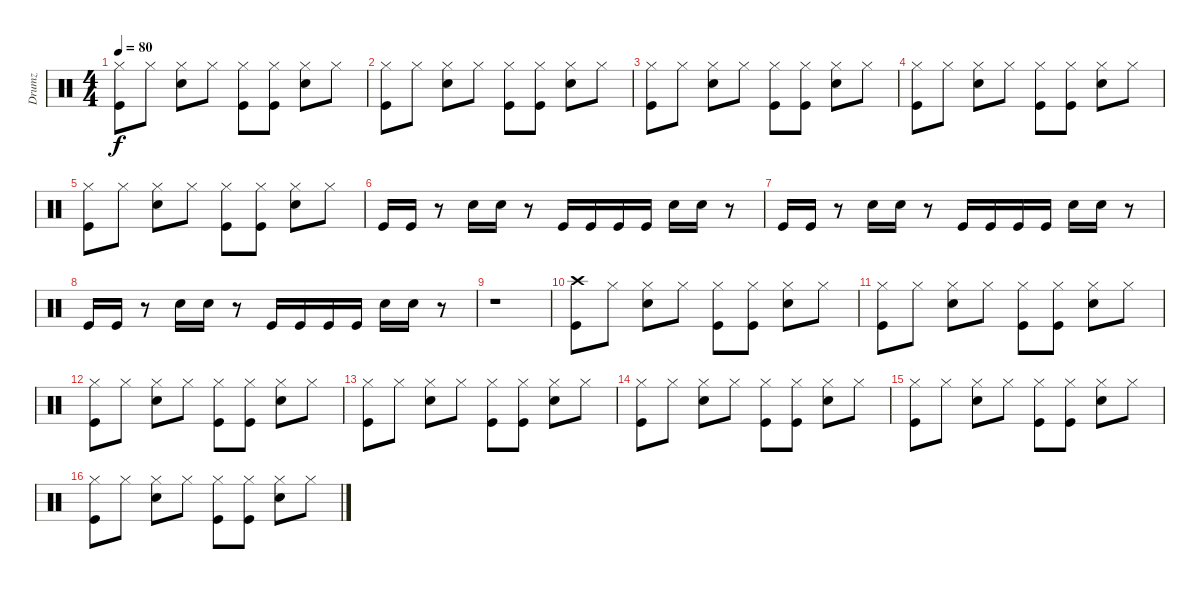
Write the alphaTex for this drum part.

\track ("Drumz" "Drumz") {instrument percussion}
\staff {score}
\articulation defaults
\ts (4 4)
\tempo 80
\clef neutral
\ks c
("Hi-Hat (closed)" "Kick (hit)").8{dy f} "Hi-Hat (closed)".8 ("Hi-Hat (closed)" "Electric Snare (hit)").8 "Hi-Hat (closed)".8 ("Hi-Hat (closed)" "Kick (hit)").8 ("Hi-Hat (closed)" "Kick (hit)").8 ("Hi-Hat (closed)" "Electric Snare (hit)").8 "Hi-Hat (closed)".8 |
("Hi-Hat (closed)" "Kick (hit)").8 "Hi-Hat (closed)".8 ("Hi-Hat (closed)" "Electric Snare (hit)").8 "Hi-Hat (closed)".8 ("Hi-Hat (closed)" "Kick (hit)").8 ("Hi-Hat (closed)" "Kick (hit)").8 ("Hi-Hat (closed)" "Electric Snare (hit)").8 "Hi-Hat (closed)".8 |
("Hi-Hat (closed)" "Kick (hit)").8 "Hi-Hat (closed)".8 ("Hi-Hat (closed)" "Electric Snare (hit)").8 "Hi-Hat (closed)".8 ("Hi-Hat (closed)" "Kick (hit)").8 ("Hi-Hat (closed)" "Kick (hit)").8 ("Hi-Hat (closed)" "Electric Snare (hit)").8 "Hi-Hat (closed)".8 |
("Hi-Hat (closed)" "Kick (hit)").8 "Hi-Hat (closed)".8 ("Hi-Hat (closed)" "Electric Snare (hit)").8 "Hi-Hat (closed)".8 ("Hi-Hat (closed)" "Kick (hit)").8 ("Hi-Hat (closed)" "Kick (hit)").8 ("Hi-Hat (closed)" "Electric Snare (hit)").8 "Hi-Hat (closed)".8 |
("Hi-Hat (closed)" "Kick (hit)").8 "Hi-Hat (closed)".8 ("Hi-Hat (closed)" "Electric Snare (hit)").8 "Hi-Hat (closed)".8 ("Hi-Hat (closed)" "Kick (hit)").8 ("Hi-Hat (closed)" "Kick (hit)").8 ("Hi-Hat (closed)" "Electric Snare (hit)").8 "Hi-Hat (closed)".8 |
"Kick (hit)".16 "Kick (hit)".16 r.8 "Hand Clap (hit)".16 "Hand Clap (hit)".16 r.8 "Kick (hit)".16 "Kick (hit)".16 "Kick (hit)".16 "Kick (hit)".16 "Hand Clap (hit)".16 "Hand Clap (hit)".16 r.8 |
"Kick (hit)".16 "Kick (hit)".16 r.8 "Hand Clap (hit)".16 "Hand Clap (hit)".16 r.8 "Kick (hit)".16 "Kick (hit)".16 "Kick (hit)".16 "Kick (hit)".16 "Hand Clap (hit)".16 "Hand Clap (hit)".16 r.8 |
"Kick (hit)".16 "Kick (hit)".16 r.8 "Hand Clap (hit)".16 "Hand Clap (hit)".16 r.8 "Kick (hit)".16 "Kick (hit)".16 "Kick (hit)".16 "Kick (hit)".16 "Hand Clap (hit)".16 "Hand Clap (hit)".16 r.8 |
r.1 |
("Crash high (hit)" "Kick (hit)").8 "Hi-Hat (closed)".8 ("Hi-Hat (closed)" "Electric Snare (hit)").8 "Hi-Hat (closed)".8 ("Hi-Hat (closed)" "Kick (hit)").8 ("Hi-Hat (closed)" "Kick (hit)").8 ("Hi-Hat (closed)" "Electric Snare (hit)").8 "Hi-Hat (closed)".8 |
("Hi-Hat (closed)" "Kick (hit)").8 "Hi-Hat (closed)".8 ("Hi-Hat (closed)" "Electric Snare (hit)").8 "Hi-Hat (closed)".8 ("Hi-Hat (closed)" "Kick (hit)").8 ("Hi-Hat (closed)" "Kick (hit)").8 ("Hi-Hat (closed)" "Electric Snare (hit)").8 "Hi-Hat (closed)".8 |
("Hi-Hat (closed)" "Kick (hit)").8 "Hi-Hat (closed)".8 ("Hi-Hat (closed)" "Electric Snare (hit)").8 "Hi-Hat (closed)".8 ("Hi-Hat (closed)" "Kick (hit)").8 ("Hi-Hat (closed)" "Kick (hit)").8 ("Hi-Hat (closed)" "Electric Snare (hit)").8 "Hi-Hat (closed)".8 |
("Hi-Hat (closed)" "Kick (hit)").8 "Hi-Hat (closed)".8 ("Hi-Hat (closed)" "Electric Snare (hit)").8 "Hi-Hat (closed)".8 ("Hi-Hat (closed)" "Kick (hit)").8 ("Hi-Hat (closed)" "Kick (hit)").8 ("Hi-Hat (closed)" "Electric Snare (hit)").8 "Hi-Hat (closed)".8 |
("Hi-Hat (closed)" "Kick (hit)").8 "Hi-Hat (closed)".8 ("Hi-Hat (closed)" "Electric Snare (hit)").8 "Hi-Hat (closed)".8 ("Hi-Hat (closed)" "Kick (hit)").8 ("Hi-Hat (closed)" "Kick (hit)").8 ("Hi-Hat (closed)" "Electric Snare (hit)").8 "Hi-Hat (closed)".8 |
("Hi-Hat (closed)" "Kick (hit)").8 "Hi-Hat (closed)".8 ("Hi-Hat (closed)" "Electric Snare (hit)").8 "Hi-Hat (closed)".8 ("Hi-Hat (closed)" "Kick (hit)").8 ("Hi-Hat (closed)" "Kick (hit)").8 ("Hi-Hat (closed)" "Electric Snare (hit)").8 "Hi-Hat (closed)".8 |
("Hi-Hat (closed)" "Kick (hit)").8 "Hi-Hat (closed)".8 ("Hi-Hat (closed)" "Electric Snare (hit)").8 "Hi-Hat (closed)".8 ("Hi-Hat (closed)" "Kick (hit)").8 ("Hi-Hat (closed)" "Kick (hit)").8 ("Hi-Hat (closed)" "Electric Snare (hit)").8 "Hi-Hat (closed)".8
